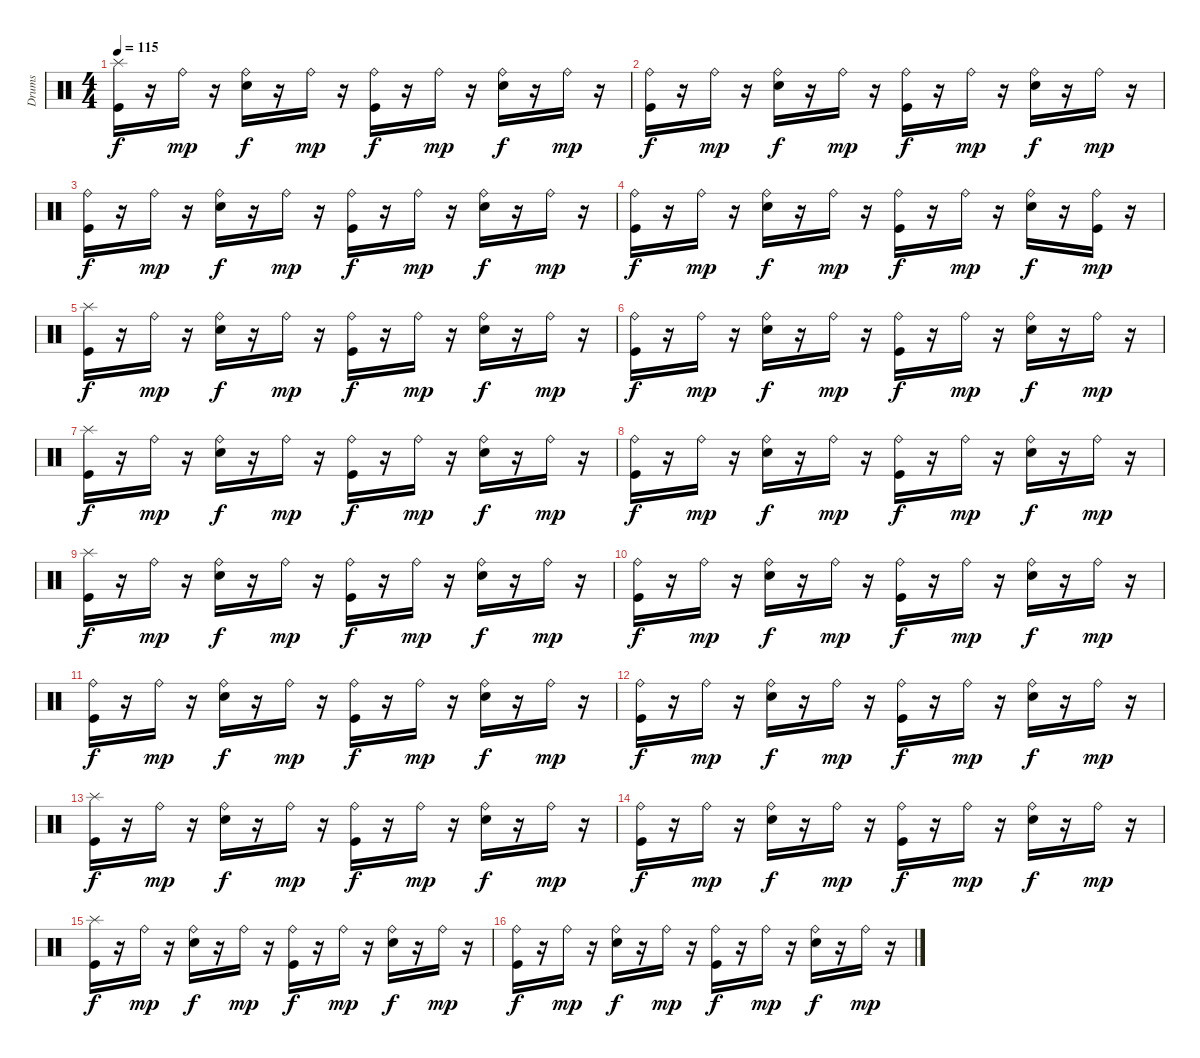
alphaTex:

\track ("Drums" "Drums") {instrument percussion}
\staff {score}
\articulation defaults
\ts (4 4)
\tempo 115
\clef neutral
\ks c
("Splash (hit)" "Kick (hit)").16{dy f} r.16 "Ride (bell)".16{dy mp} r.16 ("Ride (bell)" "Electric Snare (hit)").16{dy f} r.16 "Ride (bell)".16{dy mp} r.16 ("Ride (bell)" "Kick (hit)").16{dy f} r.16 "Ride (bell)".16{dy mp} r.16 ("Ride (bell)" "Electric Snare (hit)").16{dy f} r.16 "Ride (bell)".16{dy mp} r.16 |
("Ride (bell)" "Kick (hit)").16{dy f} r.16 "Ride (bell)".16{dy mp} r.16 ("Ride (bell)" "Electric Snare (hit)").16{dy f} r.16 "Ride (bell)".16{dy mp} r.16 ("Ride (bell)" "Kick (hit)").16{dy f} r.16 "Ride (bell)".16{dy mp} r.16 ("Ride (bell)" "Electric Snare (hit)").16{dy f} r.16 "Ride (bell)".16{dy mp} r.16 |
("Ride (bell)" "Kick (hit)").16{dy f} r.16 "Ride (bell)".16{dy mp} r.16 ("Ride (bell)" "Electric Snare (hit)").16{dy f} r.16 "Ride (bell)".16{dy mp} r.16 ("Ride (bell)" "Kick (hit)").16{dy f} r.16 "Ride (bell)".16{dy mp} r.16 ("Ride (bell)" "Electric Snare (hit)").16{dy f} r.16 "Ride (bell)".16{dy mp} r.16 |
("Ride (bell)" "Kick (hit)").16{dy f} r.16 "Ride (bell)".16{dy mp} r.16 ("Ride (bell)" "Electric Snare (hit)").16{dy f} r.16 "Ride (bell)".16{dy mp} r.16 ("Ride (bell)" "Kick (hit)").16{dy f} r.16 "Ride (bell)".16{dy mp} r.16 ("Ride (bell)" "Electric Snare (hit)").16{dy f} r.16 ("Ride (bell)" "Kick (hit)").16{dy mp} r.16 |
("Splash (hit)" "Kick (hit)").16{dy f} r.16 "Ride (bell)".16{dy mp} r.16 ("Ride (bell)" "Electric Snare (hit)").16{dy f} r.16 "Ride (bell)".16{dy mp} r.16 ("Ride (bell)" "Kick (hit)").16{dy f} r.16 "Ride (bell)".16{dy mp} r.16 ("Ride (bell)" "Electric Snare (hit)").16{dy f} r.16 "Ride (bell)".16{dy mp} r.16 |
("Ride (bell)" "Kick (hit)").16{dy f} r.16 "Ride (bell)".16{dy mp} r.16 ("Ride (bell)" "Electric Snare (hit)").16{dy f} r.16 "Ride (bell)".16{dy mp} r.16 ("Ride (bell)" "Kick (hit)").16{dy f} r.16 "Ride (bell)".16{dy mp} r.16 ("Ride (bell)" "Electric Snare (hit)").16{dy f} r.16 "Ride (bell)".16{dy mp} r.16 |
("Splash (hit)" "Kick (hit)").16{dy f} r.16 "Ride (bell)".16{dy mp} r.16 ("Ride (bell)" "Electric Snare (hit)").16{dy f} r.16 "Ride (bell)".16{dy mp} r.16 ("Ride (bell)" "Kick (hit)").16{dy f} r.16 "Ride (bell)".16{dy mp} r.16 ("Ride (bell)" "Electric Snare (hit)").16{dy f} r.16 "Ride (bell)".16{dy mp} r.16 |
("Ride (bell)" "Kick (hit)").16{dy f} r.16 "Ride (bell)".16{dy mp} r.16 ("Ride (bell)" "Electric Snare (hit)").16{dy f} r.16 "Ride (bell)".16{dy mp} r.16 ("Ride (bell)" "Kick (hit)").16{dy f} r.16 "Ride (bell)".16{dy mp} r.16 ("Ride (bell)" "Electric Snare (hit)").16{dy f} r.16 "Ride (bell)".16{dy mp} r.16 |
("Splash (hit)" "Kick (hit)").16{dy f} r.16 "Ride (bell)".16{dy mp} r.16 ("Ride (bell)" "Electric Snare (hit)").16{dy f} r.16 "Ride (bell)".16{dy mp} r.16 ("Ride (bell)" "Kick (hit)").16{dy f} r.16 "Ride (bell)".16{dy mp} r.16 ("Ride (bell)" "Electric Snare (hit)").16{dy f} r.16 "Ride (bell)".16{dy mp} r.16 |
("Ride (bell)" "Kick (hit)").16{dy f} r.16 "Ride (bell)".16{dy mp} r.16 ("Ride (bell)" "Electric Snare (hit)").16{dy f} r.16 "Ride (bell)".16{dy mp} r.16 ("Ride (bell)" "Kick (hit)").16{dy f} r.16 "Ride (bell)".16{dy mp} r.16 ("Ride (bell)" "Electric Snare (hit)").16{dy f} r.16 "Ride (bell)".16{dy mp} r.16 |
("Ride (bell)" "Kick (hit)").16{dy f} r.16 "Ride (bell)".16{dy mp} r.16 ("Ride (bell)" "Electric Snare (hit)").16{dy f} r.16 "Ride (bell)".16{dy mp} r.16 ("Ride (bell)" "Kick (hit)").16{dy f} r.16 "Ride (bell)".16{dy mp} r.16 ("Ride (bell)" "Electric Snare (hit)").16{dy f} r.16 "Ride (bell)".16{dy mp} r.16 |
("Ride (bell)" "Kick (hit)").16{dy f} r.16 "Ride (bell)".16{dy mp} r.16 ("Ride (bell)" "Electric Snare (hit)").16{dy f} r.16 "Ride (bell)".16{dy mp} r.16 ("Ride (bell)" "Kick (hit)").16{dy f} r.16 "Ride (bell)".16{dy mp} r.16 ("Ride (bell)" "Electric Snare (hit)").16{dy f} r.16 "Ride (bell)".16{dy mp} r.16 |
("Splash (hit)" "Kick (hit)").16{dy f} r.16 "Ride (bell)".16{dy mp} r.16 ("Ride (bell)" "Electric Snare (hit)").16{dy f} r.16 "Ride (bell)".16{dy mp} r.16 ("Ride (bell)" "Kick (hit)").16{dy f} r.16 "Ride (bell)".16{dy mp} r.16 ("Ride (bell)" "Electric Snare (hit)").16{dy f} r.16 "Ride (bell)".16{dy mp} r.16 |
("Ride (bell)" "Kick (hit)").16{dy f} r.16 "Ride (bell)".16{dy mp} r.16 ("Ride (bell)" "Electric Snare (hit)").16{dy f} r.16 "Ride (bell)".16{dy mp} r.16 ("Ride (bell)" "Kick (hit)").16{dy f} r.16 "Ride (bell)".16{dy mp} r.16 ("Ride (bell)" "Electric Snare (hit)").16{dy f} r.16 "Ride (bell)".16{dy mp} r.16 |
("Splash (hit)" "Kick (hit)").16{dy f} r.16 "Ride (bell)".16{dy mp} r.16 ("Ride (bell)" "Electric Snare (hit)").16{dy f} r.16 "Ride (bell)".16{dy mp} r.16 ("Ride (bell)" "Kick (hit)").16{dy f} r.16 "Ride (bell)".16{dy mp} r.16 ("Ride (bell)" "Electric Snare (hit)").16{dy f} r.16 "Ride (bell)".16{dy mp} r.16 |
("Ride (bell)" "Kick (hit)").16{dy f} r.16 "Ride (bell)".16{dy mp} r.16 ("Ride (bell)" "Electric Snare (hit)").16{dy f} r.16 "Ride (bell)".16{dy mp} r.16 ("Ride (bell)" "Kick (hit)").16{dy f} r.16 "Ride (bell)".16{dy mp} r.16 ("Ride (bell)" "Electric Snare (hit)").16{dy f} r.16 "Ride (bell)".16{dy mp} r.16
